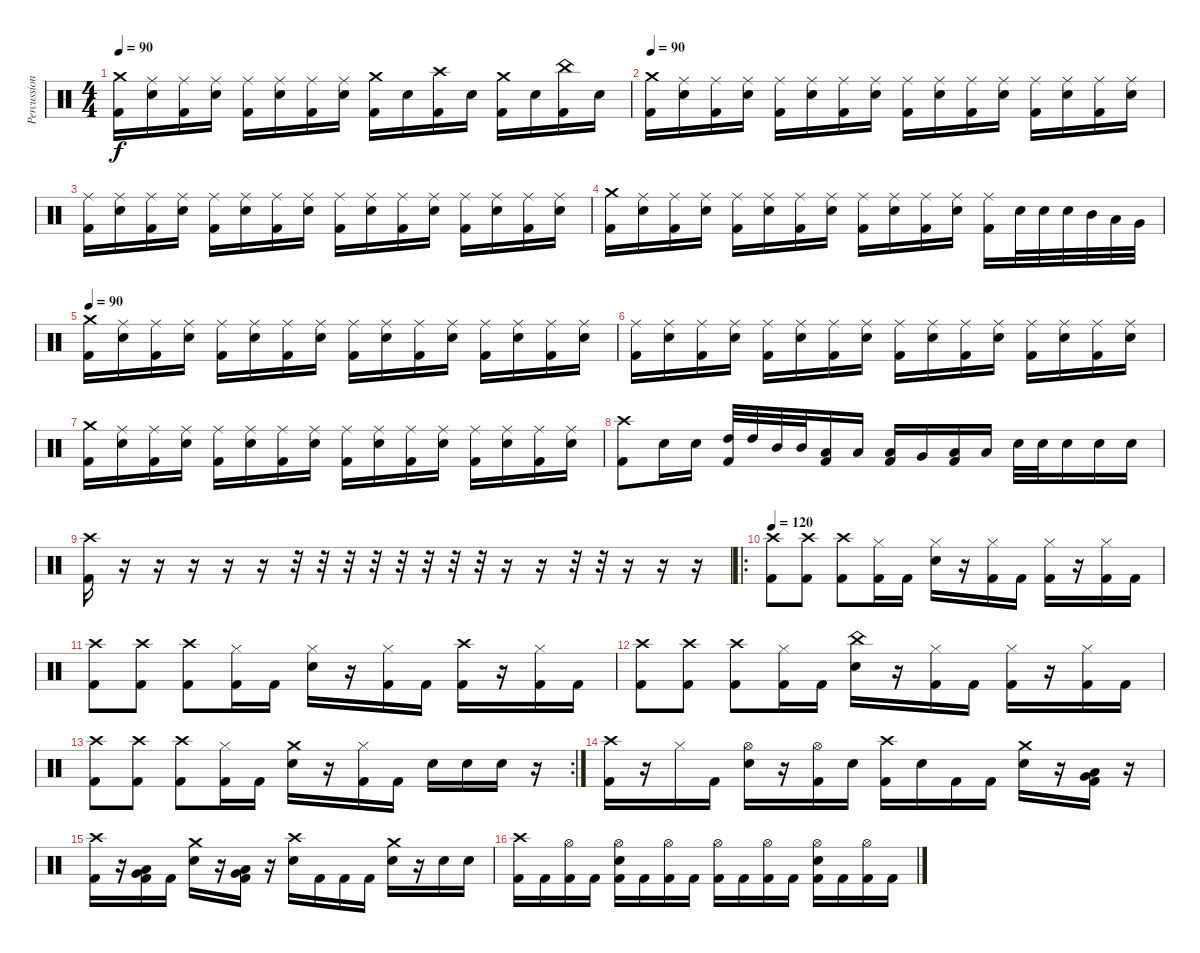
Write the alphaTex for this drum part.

\track ("Percussion" "Percussion") {instrument percussion}
\staff {score}
\articulation defaults
\ts (4 4)
\tempo 90
\clef neutral
\ks c
("Crash medium (hit)" "Kick (hit) 2").16{dy f} ("Ride (middle)" "Snare (hit) 2").16 ("Ride (middle)" "Kick (hit) 2").16 ("Ride (middle)" "Snare (hit) 2").16 ("Ride (middle)" "Kick (hit) 2").16 ("Ride (middle)" "Snare (hit) 2").16 ("Ride (middle)" "Kick (hit) 2").16 ("Ride (middle)" "Snare (hit) 2").16 ("Crash medium (hit)" "Kick (hit) 2").16 "Snare (hit) 2".16 ("Crash high (hit)" "Kick (hit) 2").16 "Snare (hit) 2".16 ("Crash medium (hit)" "Kick (hit) 2").16 "Snare (hit) 2".16 ("China (hit)" "Kick (hit) 2").16 "Snare (hit) 2".16 |
\tempo 90
("Crash medium (hit)" "Kick (hit) 2").16 ("Ride (middle)" "Snare (hit) 2").16 ("Ride (middle)" "Kick (hit) 2").16 ("Ride (middle)" "Snare (hit) 2").16 ("Ride (middle)" "Kick (hit) 2").16 ("Ride (middle)" "Snare (hit) 2").16 ("Ride (middle)" "Kick (hit) 2").16 ("Ride (middle)" "Snare (hit) 2").16 ("Ride (middle)" "Kick (hit) 2").16 ("Ride (middle)" "Snare (hit) 2").16 ("Ride (middle)" "Kick (hit) 2").16 ("Ride (middle)" "Snare (hit) 2").16 ("Ride (middle)" "Kick (hit) 2").16 ("Ride (middle)" "Snare (hit) 2").16 ("Ride (middle)" "Kick (hit) 2").16 ("Ride (middle)" "Snare (hit) 2").16 |
("Ride (middle)" "Kick (hit) 2").16 ("Ride (middle)" "Snare (hit) 2").16 ("Ride (middle)" "Kick (hit) 2").16 ("Ride (middle)" "Snare (hit) 2").16 ("Ride (middle)" "Kick (hit) 2").16 ("Ride (middle)" "Snare (hit) 2").16 ("Ride (middle)" "Kick (hit) 2").16 ("Ride (middle)" "Snare (hit) 2").16 ("Ride (middle)" "Kick (hit) 2").16 ("Ride (middle)" "Snare (hit) 2").16 ("Ride (middle)" "Kick (hit) 2").16 ("Ride (middle)" "Snare (hit) 2").16 ("Ride (middle)" "Kick (hit) 2").16 ("Ride (middle)" "Snare (hit) 2").16 ("Ride (middle)" "Kick (hit) 2").16 ("Ride (middle)" "Snare (hit) 2").16 |
("Crash medium (hit)" "Kick (hit) 2").16 ("Ride (middle)" "Snare (hit) 2").16 ("Ride (middle)" "Kick (hit) 2").16 ("Ride (middle)" "Snare (hit) 2").16 ("Ride (middle)" "Kick (hit) 2").16 ("Ride (middle)" "Snare (hit) 2").16 ("Ride (middle)" "Kick (hit) 2").16 ("Ride (middle)" "Snare (hit) 2").16 ("Ride (middle)" "Kick (hit) 2").16 ("Ride (middle)" "Snare (hit) 2").16 ("Ride (middle)" "Kick (hit) 2").16 ("Ride (middle)" "Snare (hit) 2").16 ("Ride (middle)" "Kick (hit) 2").16 "Snare (hit) 2".32 "Snare (hit) 2".32 "Snare (hit) 2".32 "Mid Tom (hit)".32 "Low Tom (hit)".32 "Very Low Tom (hit)".32 |
\tempo 90
("Crash medium (hit)" "Kick (hit) 2").16 ("Ride (middle)" "Snare (hit) 2").16 ("Ride (middle)" "Kick (hit) 2").16 ("Ride (middle)" "Snare (hit) 2").16 ("Ride (middle)" "Kick (hit) 2").16 ("Ride (middle)" "Snare (hit) 2").16 ("Ride (middle)" "Kick (hit) 2").16 ("Ride (middle)" "Snare (hit) 2").16 ("Ride (middle)" "Kick (hit) 2").16 ("Ride (middle)" "Snare (hit) 2").16 ("Ride (middle)" "Kick (hit) 2").16 ("Ride (middle)" "Snare (hit) 2").16 ("Ride (middle)" "Kick (hit) 2").16 ("Ride (middle)" "Snare (hit) 2").16 ("Ride (middle)" "Kick (hit) 2").16 ("Ride (middle)" "Snare (hit) 2").16 |
("Ride (middle)" "Kick (hit) 2").16 ("Ride (middle)" "Snare (hit) 2").16 ("Ride (middle)" "Kick (hit) 2").16 ("Ride (middle)" "Snare (hit) 2").16 ("Ride (middle)" "Kick (hit) 2").16 ("Ride (middle)" "Snare (hit) 2").16 ("Ride (middle)" "Kick (hit) 2").16 ("Ride (middle)" "Snare (hit) 2").16 ("Ride (middle)" "Kick (hit) 2").16 ("Ride (middle)" "Snare (hit) 2").16 ("Ride (middle)" "Kick (hit) 2").16 ("Ride (middle)" "Snare (hit) 2").16 ("Ride (middle)" "Kick (hit) 2").16 ("Ride (middle)" "Snare (hit) 2").16 ("Ride (middle)" "Kick (hit) 2").16 ("Ride (middle)" "Snare (hit) 2").16 |
("Crash medium (hit)" "Kick (hit) 2").16 ("Ride (middle)" "Snare (hit) 2").16 ("Ride (middle)" "Kick (hit) 2").16 ("Ride (middle)" "Snare (hit) 2").16 ("Ride (middle)" "Kick (hit) 2").16 ("Ride (middle)" "Snare (hit) 2").16 ("Ride (middle)" "Kick (hit) 2").16 ("Ride (middle)" "Snare (hit) 2").16 ("Ride (middle)" "Kick (hit) 2").16 ("Ride (middle)" "Snare (hit) 2").16 ("Ride (middle)" "Kick (hit) 2").16 ("Ride (middle)" "Snare (hit) 2").16 ("Ride (middle)" "Kick (hit) 2").16 ("Ride (middle)" "Snare (hit) 2").16 ("Ride (middle)" "Kick (hit) 2").16 ("Ride (middle)" "Snare (hit) 2").16 |
("Crash high (hit)" "Kick (hit) 2").8 "Snare (hit) 2".16 "Snare (hit) 2".16 ("High Tom (hit)" "Kick (hit) 2").32 "High Tom (hit)".32 "Mid Tom (hit)".32 "Mid Tom (hit)".32 ("Low Tom (hit)" "Kick (hit) 2").16 "Low Tom (hit)".16 ("Low Tom (hit)" "Kick (hit) 2").16 "Very Low Tom (hit)".16 ("Low Floor Tom (hit)" "Kick (hit) 2").16 "Low Floor Tom (hit)".16 "Snare (hit) 2".32 "Snare (hit) 2".32 "Snare (hit) 2".16 "Snare (hit) 2".16 "Snare (hit) 2".16 |
("Crash high (hit)" "Kick (hit) 2").16 r.16 r.16 r.16 r.16 r.16 r.32 r.32 r.32 r.32 r.32 r.32 r.32 r.32 r.16 r.16 r.32 r.32 r.16 r.16 r.16 |
\ro
\tempo 120
("Crash high (hit)" "Kick (hit) 2").8 ("Crash high (hit)" "Kick (hit) 2").8 ("Crash high (hit)" "Kick (hit) 2").8 ("Hi-Hat (closed)" "Kick (hit) 2").16 "Kick (hit) 2".16 ("Hi-Hat (closed)" "Snare (hit) 2").16 r.16 ("Hi-Hat (closed)" "Kick (hit) 2").16 "Kick (hit) 2".16 ("Hi-Hat (closed)" "Kick (hit) 2").16 r.16 ("Hi-Hat (closed)" "Kick (hit) 2").16 "Kick (hit) 2".16 |
("Crash high (hit)" "Kick (hit) 2").8 ("Crash high (hit)" "Kick (hit) 2").8 ("Crash high (hit)" "Kick (hit) 2").8 ("Hi-Hat (closed)" "Kick (hit) 2").16 "Kick (hit) 2".16 ("Hi-Hat (closed)" "Snare (hit) 2").16 r.16 ("Hi-Hat (closed)" "Kick (hit) 2").16 "Kick (hit) 2".16 ("Crash high (hit)" "Kick (hit) 2").16 r.16 ("Hi-Hat (closed)" "Kick (hit) 2").16 "Kick (hit) 2".16 |
("Crash high (hit)" "Kick (hit) 2").8 ("Crash high (hit)" "Kick (hit) 2").8 ("Crash high (hit)" "Kick (hit) 2").8 ("Hi-Hat (closed)" "Kick (hit) 2").16 "Kick (hit) 2".16 ("China (hit)" "Snare (hit) 2").16 r.16 ("Hi-Hat (closed)" "Kick (hit) 2").16 "Kick (hit) 2".16 ("Hi-Hat (closed)" "Kick (hit) 2").16 r.16 ("Hi-Hat (closed)" "Kick (hit) 2").16 "Kick (hit) 2".16 |
\rc 2
("Crash high (hit)" "Kick (hit) 2").8 ("Crash high (hit)" "Kick (hit) 2").8 ("Crash high (hit)" "Kick (hit) 2").8 ("Hi-Hat (closed)" "Kick (hit) 2").16 "Kick (hit) 2".16 ("Crash medium (hit)" "Snare (hit) 2").16 r.16 ("Hi-Hat (closed)" "Kick (hit) 2").16 "Kick (hit) 2".16 "Snare (hit) 2".16 "Snare (hit) 2".16 "Snare (hit) 2".16 r.16 |
("Crash high (hit)" "Kick (hit) 2").16 r.16 "Hi-Hat (closed)".16 "Kick (hit) 2".16 ("Hi-Hat (open)" "Snare (hit) 2").16 r.16 ("Hi-Hat (open)" "Kick (hit) 2").16 "Snare (hit) 2".16 ("Crash high (hit)" "Kick (hit) 2").16 "Snare (hit) 2".16 "Kick (hit) 2".16 "Kick (hit) 2".16 ("Crash medium (hit)" "Snare (hit) 2").16 r.16 ("Very Low Tom (hit)" "Low Floor Tom (hit)" "Kick (hit) 2").16 r.16 |
("Crash high (hit)" "Kick (hit) 2").16 r.16 ("Very Low Tom (hit)" "Low Floor Tom (hit)" "Kick (hit) 2").16 "Kick (hit) 2".16 ("Crash medium (hit)" "Snare (hit) 2").16 r.16 ("Very Low Tom (hit)" "Low Floor Tom (hit)" "Kick (hit) 2").16 r.16 ("Crash high (hit)" "Snare (hit) 2").16 "Kick (hit) 2".16 "Kick (hit) 2".16 "Kick (hit) 2".16 ("Crash medium (hit)" "Snare (hit) 2").16 r.16 "Snare (hit) 2".16 "Snare (hit) 2".16 |
("Crash high (hit)" "Kick (hit) 2").16 "Kick (hit) 2".16 ("Hi-Hat (open)" "Kick (hit) 2").16 "Kick (hit) 2".16 ("Hi-Hat (open)" "Snare (hit) 2" "Kick (hit) 2").16 "Kick (hit) 2".16 ("Hi-Hat (open)" "Kick (hit) 2").16 "Kick (hit) 2".16 ("Hi-Hat (open)" "Kick (hit) 2").16 "Kick (hit) 2".16 ("Hi-Hat (open)" "Kick (hit) 2").16 "Kick (hit) 2".16 ("Hi-Hat (open)" "Snare (hit) 2" "Kick (hit) 2").16 "Kick (hit) 2".16 ("Hi-Hat (open)" "Kick (hit) 2").16 "Kick (hit) 2".16
